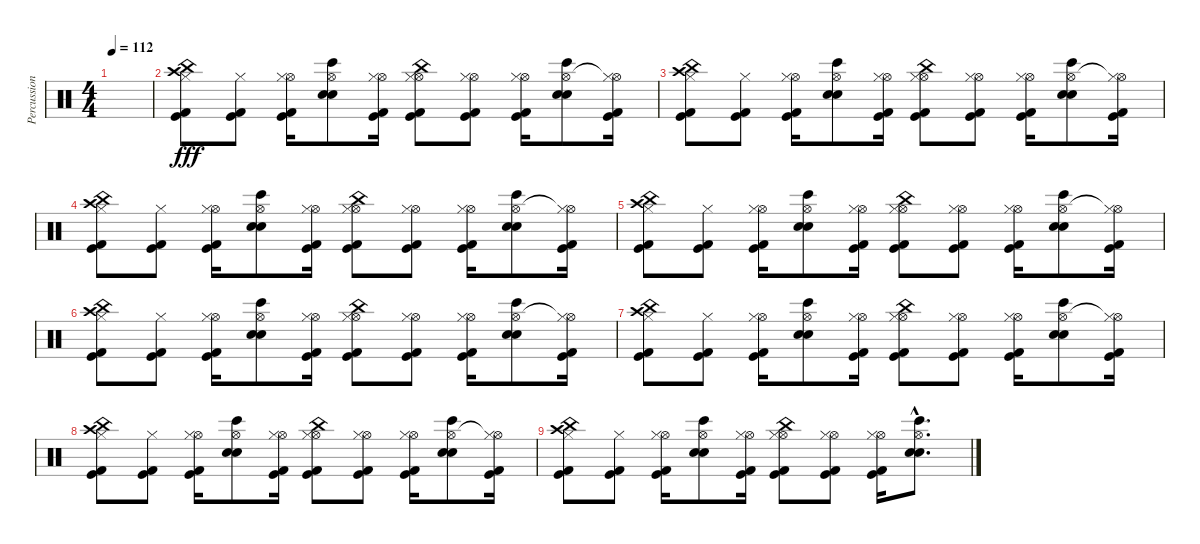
\track ("Percussion" "Percussion") {instrument percussion}
\staff {score}
\articulation defaults
\ts (4 4)
\tempo 112
\clef neutral
\ks c
|
("China (hit)" "Crash high (hit)" "Kick (hit)" "Hi-Hat (closed)" "Kick (hit) 2").8{dy fff} ("Kick (hit)" "Hi-Hat (closed)" "Kick (hit) 2").8 ("Hi-Hat (open)" "Kick (hit)" "Hi-Hat (closed)" "Kick (hit) 2").16 ("Hi-Hat (open)" "Electric Snare (hit)" "Bongo High (hit)" "Snare (hit) 2").8 ("Hi-Hat (open)" "Kick (hit)" "Hi-Hat (closed)" "Kick (hit) 2").16 ("China (hit)" "Hi-Hat (open)" "Kick (hit)" "Hi-Hat (closed)" "Kick (hit) 2").8 ("Hi-Hat (open)" "Kick (hit)" "Hi-Hat (closed)" "Kick (hit) 2").8 ("Hi-Hat (open)" "Kick (hit)" "Hi-Hat (closed)" "Kick (hit) 2").16 ("Hi-Hat (open)" "Electric Snare (hit)" "Bongo High (hit)" "Snare (hit) 2").8 ("Hi-Hat (open)"{t} "Kick (hit)" "Hi-Hat (closed)" "Kick (hit) 2").16 |
("China (hit)" "Crash high (hit)" "Kick (hit)" "Hi-Hat (closed)" "Kick (hit) 2").8 ("Kick (hit)" "Hi-Hat (closed)" "Kick (hit) 2").8 ("Hi-Hat (open)" "Kick (hit)" "Hi-Hat (closed)" "Kick (hit) 2").16 ("Hi-Hat (open)" "Electric Snare (hit)" "Bongo High (hit)" "Snare (hit) 2").8 ("Hi-Hat (open)" "Kick (hit)" "Hi-Hat (closed)" "Kick (hit) 2").16 ("China (hit)" "Hi-Hat (open)" "Kick (hit)" "Hi-Hat (closed)" "Kick (hit) 2").8 ("Hi-Hat (open)" "Kick (hit)" "Hi-Hat (closed)" "Kick (hit) 2").8 ("Hi-Hat (open)" "Kick (hit)" "Hi-Hat (closed)" "Kick (hit) 2").16 ("Hi-Hat (open)" "Electric Snare (hit)" "Bongo High (hit)" "Snare (hit) 2").8 ("Hi-Hat (open)"{t} "Kick (hit)" "Hi-Hat (closed)" "Kick (hit) 2").16 |
("China (hit)" "Crash high (hit)" "Kick (hit)" "Hi-Hat (closed)" "Kick (hit) 2").8 ("Kick (hit)" "Hi-Hat (closed)" "Kick (hit) 2").8 ("Hi-Hat (open)" "Kick (hit)" "Hi-Hat (closed)" "Kick (hit) 2").16 ("Hi-Hat (open)" "Electric Snare (hit)" "Bongo High (hit)" "Snare (hit) 2").8 ("Hi-Hat (open)" "Kick (hit)" "Hi-Hat (closed)" "Kick (hit) 2").16 ("China (hit)" "Hi-Hat (open)" "Kick (hit)" "Hi-Hat (closed)" "Kick (hit) 2").8 ("Hi-Hat (open)" "Kick (hit)" "Hi-Hat (closed)" "Kick (hit) 2").8 ("Hi-Hat (open)" "Kick (hit)" "Hi-Hat (closed)" "Kick (hit) 2").16 ("Hi-Hat (open)" "Electric Snare (hit)" "Bongo High (hit)" "Snare (hit) 2").8 ("Hi-Hat (open)"{t} "Kick (hit)" "Hi-Hat (closed)" "Kick (hit) 2").16 |
("China (hit)" "Crash high (hit)" "Kick (hit)" "Hi-Hat (closed)" "Kick (hit) 2").8 ("Kick (hit)" "Hi-Hat (closed)" "Kick (hit) 2").8 ("Hi-Hat (open)" "Kick (hit)" "Hi-Hat (closed)" "Kick (hit) 2").16 ("Hi-Hat (open)" "Electric Snare (hit)" "Bongo High (hit)" "Snare (hit) 2").8 ("Hi-Hat (open)" "Kick (hit)" "Hi-Hat (closed)" "Kick (hit) 2").16 ("China (hit)" "Hi-Hat (open)" "Kick (hit)" "Hi-Hat (closed)" "Kick (hit) 2").8 ("Hi-Hat (open)" "Kick (hit)" "Hi-Hat (closed)" "Kick (hit) 2").8 ("Hi-Hat (open)" "Kick (hit)" "Hi-Hat (closed)" "Kick (hit) 2").16 ("Hi-Hat (open)" "Electric Snare (hit)" "Bongo High (hit)" "Snare (hit) 2").8 ("Hi-Hat (open)"{t} "Kick (hit)" "Hi-Hat (closed)" "Kick (hit) 2").16 |
("China (hit)" "Crash high (hit)" "Kick (hit)" "Hi-Hat (closed)" "Kick (hit) 2").8 ("Kick (hit)" "Hi-Hat (closed)" "Kick (hit) 2").8 ("Hi-Hat (open)" "Kick (hit)" "Hi-Hat (closed)" "Kick (hit) 2").16 ("Hi-Hat (open)" "Electric Snare (hit)" "Bongo High (hit)" "Snare (hit) 2").8 ("Hi-Hat (open)" "Kick (hit)" "Hi-Hat (closed)" "Kick (hit) 2").16 ("China (hit)" "Hi-Hat (open)" "Kick (hit)" "Hi-Hat (closed)" "Kick (hit) 2").8 ("Hi-Hat (open)" "Kick (hit)" "Hi-Hat (closed)" "Kick (hit) 2").8 ("Hi-Hat (open)" "Kick (hit)" "Hi-Hat (closed)" "Kick (hit) 2").16 ("Hi-Hat (open)" "Electric Snare (hit)" "Bongo High (hit)" "Snare (hit) 2").8 ("Hi-Hat (open)"{t} "Kick (hit)" "Hi-Hat (closed)" "Kick (hit) 2").16 |
("China (hit)" "Crash high (hit)" "Kick (hit)" "Hi-Hat (closed)" "Kick (hit) 2").8 ("Kick (hit)" "Hi-Hat (closed)" "Kick (hit) 2").8 ("Hi-Hat (open)" "Kick (hit)" "Hi-Hat (closed)" "Kick (hit) 2").16 ("Hi-Hat (open)" "Electric Snare (hit)" "Bongo High (hit)" "Snare (hit) 2").8 ("Hi-Hat (open)" "Kick (hit)" "Hi-Hat (closed)" "Kick (hit) 2").16 ("China (hit)" "Hi-Hat (open)" "Kick (hit)" "Hi-Hat (closed)" "Kick (hit) 2").8 ("Hi-Hat (open)" "Kick (hit)" "Hi-Hat (closed)" "Kick (hit) 2").8 ("Hi-Hat (open)" "Kick (hit)" "Hi-Hat (closed)" "Kick (hit) 2").16 ("Hi-Hat (open)" "Electric Snare (hit)" "Bongo High (hit)" "Snare (hit) 2").8 ("Hi-Hat (open)"{t} "Kick (hit)" "Hi-Hat (closed)" "Kick (hit) 2").16 |
("China (hit)" "Crash high (hit)" "Kick (hit)" "Hi-Hat (closed)" "Kick (hit) 2").8 ("Kick (hit)" "Hi-Hat (closed)" "Kick (hit) 2").8 ("Hi-Hat (open)" "Kick (hit)" "Hi-Hat (closed)" "Kick (hit) 2").16 ("Hi-Hat (open)" "Electric Snare (hit)" "Bongo High (hit)" "Snare (hit) 2").8 ("Hi-Hat (open)" "Kick (hit)" "Hi-Hat (closed)" "Kick (hit) 2").16 ("China (hit)" "Hi-Hat (open)" "Kick (hit)" "Hi-Hat (closed)" "Kick (hit) 2").8 ("Hi-Hat (open)" "Kick (hit)" "Hi-Hat (closed)" "Kick (hit) 2").8 ("Hi-Hat (open)" "Kick (hit)" "Hi-Hat (closed)" "Kick (hit) 2").16 ("Hi-Hat (open)" "Electric Snare (hit)" "Bongo High (hit)" "Snare (hit) 2").8 ("Hi-Hat (open)"{t} "Kick (hit)" "Hi-Hat (closed)" "Kick (hit) 2").16 |
("China (hit)" "Crash high (hit)" "Kick (hit)" "Hi-Hat (closed)" "Kick (hit) 2").8 ("Kick (hit)" "Hi-Hat (closed)" "Kick (hit) 2").8 ("Hi-Hat (open)" "Kick (hit)" "Hi-Hat (closed)" "Kick (hit) 2").16 ("Hi-Hat (open)" "Electric Snare (hit)" "Bongo High (hit)" "Snare (hit) 2").8 ("Hi-Hat (open)" "Kick (hit)" "Hi-Hat (closed)" "Kick (hit) 2").16 ("China (hit)" "Hi-Hat (open)" "Kick (hit)" "Hi-Hat (closed)" "Kick (hit) 2").8 ("Hi-Hat (open)" "Kick (hit)" "Hi-Hat (closed)" "Kick (hit) 2").8 ("Hi-Hat (open)" "Kick (hit)" "Hi-Hat (closed)" "Kick (hit) 2").16 ("Hi-Hat (open)"{hac} "Electric Snare (hit)"{hac} "Bongo High (hit)"{hac} "Snare (hit) 2"{hac}).8{d}
